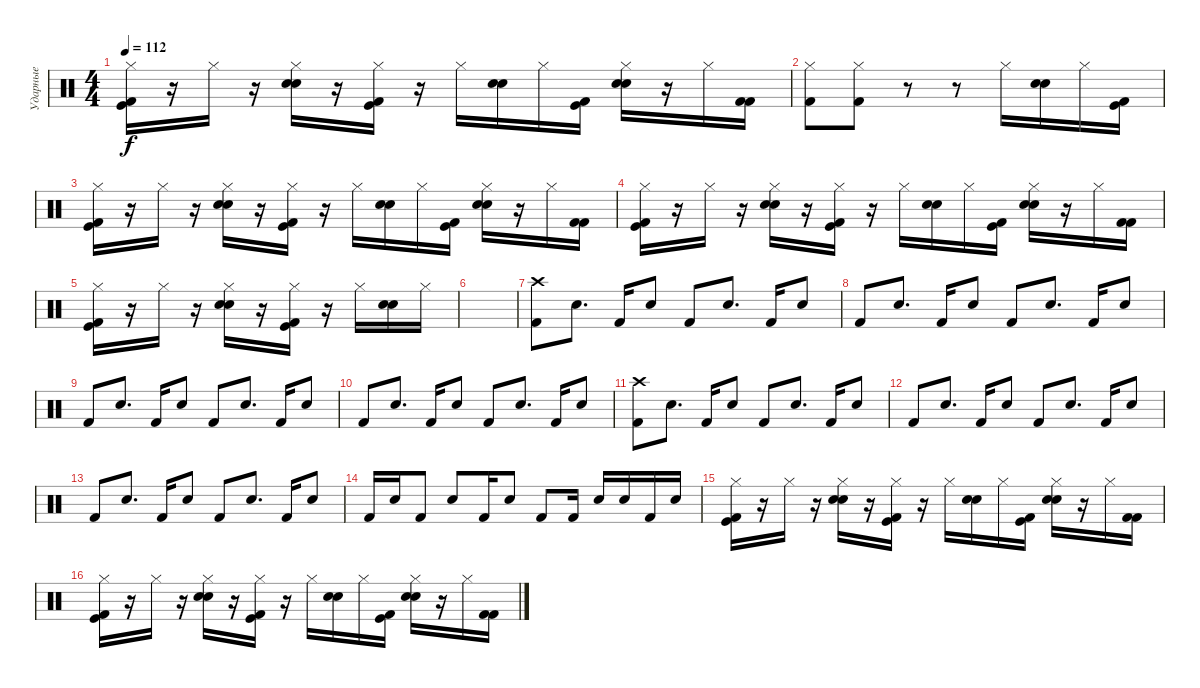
\track ("Ударные" "Ударные") {instrument percussion}
\staff {score}
\articulation defaults
\ts (4 4)
\tempo 112
\clef neutral
\ks c
("Hi-Hat (closed)" "Kick (hit)" "Kick (hit) 2").16{dy f} r.16 "Hi-Hat (closed)".16 r.16 ("Hi-Hat (closed)" "Electric Snare (hit)" "Snare (hit) 2").16 r.16 ("Hi-Hat (closed)" "Kick (hit)" "Kick (hit) 2").16 r.16 "Hi-Hat (closed)".16 ("Snare (hit) 2" "Electric Snare (hit)").16 "Hi-Hat (closed)".16 ("Kick (hit)" "Kick (hit) 2").16 ("Hi-Hat (closed)" "Electric Snare (hit)" "Snare (hit) 2").16 r.16 "Hi-Hat (closed)".16 ("Kick (hit) 2" "Kick (hit) 2").16 |
("Kick (hit) 2" "Hi-Hat (closed)").8 ("Kick (hit) 2" "Hi-Hat (closed)").8 r.8 r.8 "Hi-Hat (closed)".16 ("Snare (hit) 2" "Electric Snare (hit)").16 "Hi-Hat (closed)".16 ("Kick (hit)" "Kick (hit) 2").16 |
("Hi-Hat (closed)" "Kick (hit)" "Kick (hit) 2").16 r.16 "Hi-Hat (closed)".16 r.16 ("Hi-Hat (closed)" "Electric Snare (hit)" "Snare (hit) 2").16 r.16 ("Hi-Hat (closed)" "Kick (hit)" "Kick (hit) 2").16 r.16 "Hi-Hat (closed)".16 ("Snare (hit) 2" "Electric Snare (hit)").16 "Hi-Hat (closed)".16 ("Kick (hit)" "Kick (hit) 2").16 ("Hi-Hat (closed)" "Electric Snare (hit)" "Snare (hit) 2").16 r.16 "Hi-Hat (closed)".16 ("Kick (hit) 2" "Kick (hit) 2").16 |
("Hi-Hat (closed)" "Kick (hit)" "Kick (hit) 2").16 r.16 "Hi-Hat (closed)".16 r.16 ("Hi-Hat (closed)" "Electric Snare (hit)" "Snare (hit) 2").16 r.16 ("Hi-Hat (closed)" "Kick (hit)" "Kick (hit) 2").16 r.16 "Hi-Hat (closed)".16 ("Snare (hit) 2" "Electric Snare (hit)").16 "Hi-Hat (closed)".16 ("Kick (hit)" "Kick (hit) 2").16 ("Hi-Hat (closed)" "Electric Snare (hit)" "Snare (hit) 2").16 r.16 "Hi-Hat (closed)".16 ("Kick (hit) 2" "Kick (hit) 2").16 |
("Hi-Hat (closed)" "Kick (hit)" "Kick (hit) 2").16 r.16 "Hi-Hat (closed)".16 r.16 ("Hi-Hat (closed)" "Electric Snare (hit)" "Snare (hit) 2").16 r.16 ("Hi-Hat (closed)" "Kick (hit)" "Kick (hit) 2").16 r.16 "Hi-Hat (closed)".16 ("Snare (hit) 2" "Electric Snare (hit)").16 "Hi-Hat (closed)".16 |
|
("Kick (hit) 2" "Crash high (hit)").8 "Electric Snare (hit)".8{d} "Kick (hit) 2".16 "Electric Snare (hit)".8 "Kick (hit) 2".8 "Electric Snare (hit)".8{d} "Kick (hit) 2".16 "Electric Snare (hit)".8 |
"Kick (hit) 2".8 "Electric Snare (hit)".8{d} "Kick (hit) 2".16 "Electric Snare (hit)".8 "Kick (hit) 2".8 "Electric Snare (hit)".8{d} "Kick (hit) 2".16 "Electric Snare (hit)".8 |
"Kick (hit) 2".8 "Electric Snare (hit)".8{d} "Kick (hit) 2".16 "Electric Snare (hit)".8 "Kick (hit) 2".8 "Electric Snare (hit)".8{d} "Kick (hit) 2".16 "Electric Snare (hit)".8 |
"Kick (hit) 2".8 "Electric Snare (hit)".8{d} "Kick (hit) 2".16 "Electric Snare (hit)".8 "Kick (hit) 2".8 "Electric Snare (hit)".8{d} "Kick (hit) 2".16 "Electric Snare (hit)".8 |
("Kick (hit) 2" "Crash high (hit)").8 "Electric Snare (hit)".8{d} "Kick (hit) 2".16 "Electric Snare (hit)".8 "Kick (hit) 2".8 "Electric Snare (hit)".8{d} "Kick (hit) 2".16 "Electric Snare (hit)".8 |
"Kick (hit) 2".8 "Electric Snare (hit)".8{d} "Kick (hit) 2".16 "Electric Snare (hit)".8 "Kick (hit) 2".8 "Electric Snare (hit)".8{d} "Kick (hit) 2".16 "Electric Snare (hit)".8 |
"Kick (hit) 2".8 "Electric Snare (hit)".8{d} "Kick (hit) 2".16 "Electric Snare (hit)".8 "Kick (hit) 2".8 "Electric Snare (hit)".8{d} "Kick (hit) 2".16 "Electric Snare (hit)".8 |
"Kick (hit) 2".16 "Electric Snare (hit)".16 "Kick (hit) 2".8 "Electric Snare (hit)".8 "Kick (hit) 2".16 "Electric Snare (hit)".8 "Kick (hit) 2".8 "Kick (hit) 2".16 "Electric Snare (hit)".16 "Electric Snare (hit)".16 "Kick (hit) 2".16 "Electric Snare (hit)".16 |
("Hi-Hat (closed)" "Kick (hit)" "Kick (hit) 2").16 r.16 "Hi-Hat (closed)".16 r.16 ("Hi-Hat (closed)" "Electric Snare (hit)" "Snare (hit) 2").16 r.16 ("Hi-Hat (closed)" "Kick (hit)" "Kick (hit) 2").16 r.16 "Hi-Hat (closed)".16 ("Snare (hit) 2" "Electric Snare (hit)").16 "Hi-Hat (closed)".16 ("Kick (hit)" "Kick (hit) 2").16 ("Hi-Hat (closed)" "Electric Snare (hit)" "Snare (hit) 2").16 r.16 "Hi-Hat (closed)".16 ("Kick (hit) 2" "Kick (hit) 2").16 |
("Hi-Hat (closed)" "Kick (hit)" "Kick (hit) 2").16 r.16 "Hi-Hat (closed)".16 r.16 ("Hi-Hat (closed)" "Electric Snare (hit)" "Snare (hit) 2").16 r.16 ("Hi-Hat (closed)" "Kick (hit)" "Kick (hit) 2").16 r.16 "Hi-Hat (closed)".16 ("Snare (hit) 2" "Electric Snare (hit)").16 "Hi-Hat (closed)".16 ("Kick (hit)" "Kick (hit) 2").16 ("Hi-Hat (closed)" "Electric Snare (hit)" "Snare (hit) 2").16 r.16 "Hi-Hat (closed)".16 ("Kick (hit) 2" "Kick (hit) 2").16
